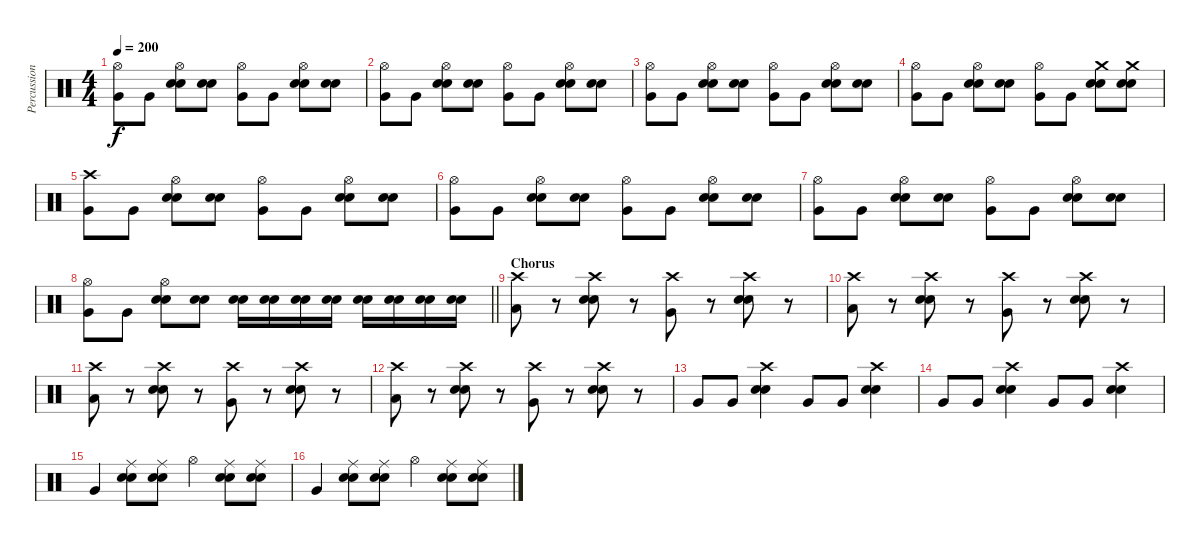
\track ("Percussion" "Percussion") {instrument percussion}
\staff {score}
\articulation defaults
\ts (4 4)
\tempo 200
\clef neutral
\ks c
("Hi-Hat (open)" "Very Low Tom (hit)").8{dy f} "Very Low Tom (hit)".8 ("Hi-Hat (open)" "Snare (hit) 2" "Electric Snare (hit)").8 ("Snare (hit) 2" "Electric Snare (hit)").8 ("Hi-Hat (open)" "Very Low Tom (hit)").8 "Very Low Tom (hit)".8 ("Hi-Hat (open)" "Snare (hit) 2" "Electric Snare (hit)").8 ("Snare (hit) 2" "Electric Snare (hit)").8 |
("Hi-Hat (open)" "Very Low Tom (hit)").8 "Very Low Tom (hit)".8 ("Hi-Hat (open)" "Snare (hit) 2" "Electric Snare (hit)").8 ("Snare (hit) 2" "Electric Snare (hit)").8 ("Hi-Hat (open)" "Very Low Tom (hit)").8 "Very Low Tom (hit)".8 ("Hi-Hat (open)" "Snare (hit) 2" "Electric Snare (hit)").8 ("Snare (hit) 2" "Electric Snare (hit)").8 |
("Hi-Hat (open)" "Very Low Tom (hit)").8 "Very Low Tom (hit)".8 ("Hi-Hat (open)" "Snare (hit) 2" "Electric Snare (hit)").8 ("Snare (hit) 2" "Electric Snare (hit)").8 ("Hi-Hat (open)" "Very Low Tom (hit)").8 "Very Low Tom (hit)".8 ("Hi-Hat (open)" "Snare (hit) 2" "Electric Snare (hit)").8 ("Snare (hit) 2" "Electric Snare (hit)").8 |
("Hi-Hat (open)" "Very Low Tom (hit)").8 "Very Low Tom (hit)".8 ("Hi-Hat (open)" "Snare (hit) 2" "Electric Snare (hit)").8 ("Snare (hit) 2" "Electric Snare (hit)").8 ("Hi-Hat (open)" "Very Low Tom (hit)").8 "Very Low Tom (hit)".8 ("Crash medium (hit)" "Snare (hit) 2" "Electric Snare (hit)").8 ("Crash medium (hit)" "Snare (hit) 2" "Electric Snare (hit)").8 |
("Crash high (hit)" "Very Low Tom (hit)").8 "Very Low Tom (hit)".8 ("Hi-Hat (open)" "Snare (hit) 2" "Electric Snare (hit)").8 ("Snare (hit) 2" "Electric Snare (hit)").8 ("Hi-Hat (open)" "Very Low Tom (hit)").8 "Very Low Tom (hit)".8 ("Hi-Hat (open)" "Snare (hit) 2" "Electric Snare (hit)").8 ("Snare (hit) 2" "Electric Snare (hit)").8 |
("Hi-Hat (open)" "Very Low Tom (hit)").8 "Very Low Tom (hit)".8 ("Hi-Hat (open)" "Snare (hit) 2" "Electric Snare (hit)").8 ("Snare (hit) 2" "Electric Snare (hit)").8 ("Hi-Hat (open)" "Very Low Tom (hit)").8 "Very Low Tom (hit)".8 ("Hi-Hat (open)" "Snare (hit) 2" "Electric Snare (hit)").8 ("Snare (hit) 2" "Electric Snare (hit)").8 |
("Hi-Hat (open)" "Very Low Tom (hit)").8 "Very Low Tom (hit)".8 ("Hi-Hat (open)" "Snare (hit) 2" "Electric Snare (hit)").8 ("Snare (hit) 2" "Electric Snare (hit)").8 ("Hi-Hat (open)" "Very Low Tom (hit)").8 "Very Low Tom (hit)".8 ("Hi-Hat (open)" "Snare (hit) 2" "Electric Snare (hit)").8 ("Snare (hit) 2" "Electric Snare (hit)").8 |
\barLineRight lightlight
("Hi-Hat (open)" "Very Low Tom (hit)").8 "Very Low Tom (hit)".8 ("Hi-Hat (open)" "Snare (hit) 2" "Electric Snare (hit)").8 ("Snare (hit) 2" "Electric Snare (hit)").8 ("Snare (hit) 2" "Electric Snare (hit)").16 ("Snare (hit) 2" "Electric Snare (hit)").16 ("Snare (hit) 2" "Electric Snare (hit)").16 ("Snare (hit) 2" "Electric Snare (hit)").16 ("Snare (hit) 2" "Electric Snare (hit)").16 ("Snare (hit) 2" "Electric Snare (hit)").16 ("Snare (hit) 2" "Electric Snare (hit)").16 ("Snare (hit) 2" "Electric Snare (hit)").16 |
\section ("" "Chorus")
("Crash high (hit)" "Low Floor Tom (hit)").8 r.8 ("Crash high (hit)" "Snare (hit) 2" "Electric Snare (hit)").8 r.8 ("Crash high (hit)" "Very Low Tom (hit)").8 r.8 ("Crash high (hit)" "Snare (hit) 2" "Electric Snare (hit)").8 r.8 |
("Crash high (hit)" "Low Floor Tom (hit)").8 r.8 ("Crash high (hit)" "Snare (hit) 2" "Electric Snare (hit)").8 r.8 ("Crash high (hit)" "Very Low Tom (hit)").8 r.8 ("Crash high (hit)" "Snare (hit) 2" "Electric Snare (hit)").8 r.8 |
("Crash high (hit)" "Low Floor Tom (hit)").8 r.8 ("Crash high (hit)" "Snare (hit) 2" "Electric Snare (hit)").8 r.8 ("Crash high (hit)" "Very Low Tom (hit)").8 r.8 ("Crash high (hit)" "Snare (hit) 2" "Electric Snare (hit)").8 r.8 |
("Crash high (hit)" "Low Floor Tom (hit)").8 r.8 ("Crash high (hit)" "Snare (hit) 2" "Electric Snare (hit)").8 r.8 ("Crash high (hit)" "Very Low Tom (hit)").8 r.8 ("Crash high (hit)" "Snare (hit) 2" "Electric Snare (hit)").8 r.8 |
"Very Low Tom (hit)".8 "Very Low Tom (hit)".8 ("Crash high (hit)" "Snare (hit) 2" "Electric Snare (hit)").4 "Very Low Tom (hit)".8 "Very Low Tom (hit)".8 ("Crash high (hit)" "Snare (hit) 2" "Electric Snare (hit)").4 |
"Very Low Tom (hit)".8 "Very Low Tom (hit)".8 ("Crash high (hit)" "Snare (hit) 2" "Electric Snare (hit)").4 "Very Low Tom (hit)".8 "Very Low Tom (hit)".8 ("Crash high (hit)" "Snare (hit) 2" "Electric Snare (hit)").4 |
"Very Low Tom (hit)".4 ("Ride (middle)" "Snare (hit) 2" "Electric Snare (hit)").8 ("Ride (middle)" "Snare (hit) 2" "Electric Snare (hit)").8 "Hi-Hat (open)".4 ("Ride (middle)" "Snare (hit) 2" "Electric Snare (hit)").8 ("Ride (middle)" "Snare (hit) 2" "Electric Snare (hit)").8 |
"Very Low Tom (hit)".4 ("Ride (middle)" "Snare (hit) 2" "Electric Snare (hit)").8 ("Ride (middle)" "Snare (hit) 2" "Electric Snare (hit)").8 "Hi-Hat (open)".4 ("Ride (middle)" "Snare (hit) 2" "Electric Snare (hit)").8 ("Ride (middle)" "Snare (hit) 2" "Electric Snare (hit)").8
